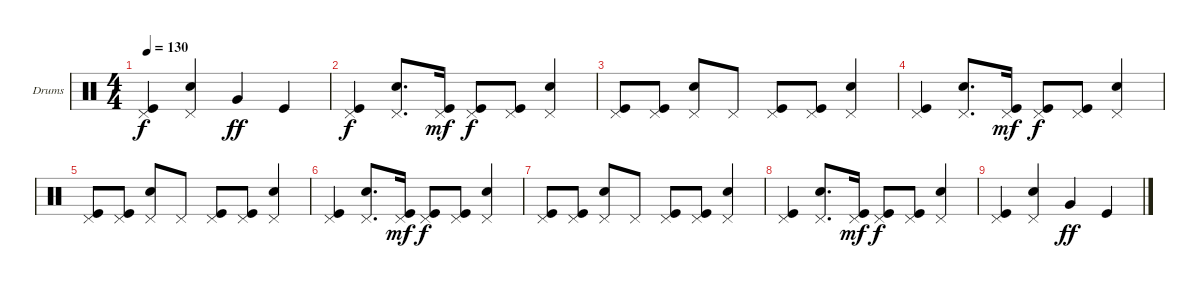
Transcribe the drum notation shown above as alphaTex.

\defaultSystemsLayout 4
\bracketExtendMode groupsimilarinstruments
\firstSystemTrackNameOrientation horizontal
\otherSystemsTrackNameOrientation horizontal
\track ("Е. Кулаков" "Drums") {instrument percussion}
\staff {score}
\articulation defaults
\ts (4 4)
\tempo 130
\clef neutral
\ks c
("Kick (hit)" "Pedal Hi-Hat (hit)").4{dy f} ("Snare (hit) 2" "Pedal Hi-Hat (hit)").4 "Very Low Tom (hit)".4{dy ff} "Kick (hit)".4 |
("Kick (hit)" "Pedal Hi-Hat (hit)").4{dy f} ("Snare (hit) 2" "Pedal Hi-Hat (hit)").8{d} ("Kick (hit)" "Pedal Hi-Hat (hit)").16{dy mf} ("Kick (hit)" "Pedal Hi-Hat (hit)").8{dy f} ("Kick (hit)" "Pedal Hi-Hat (hit)").8 ("Snare (hit) 2" "Pedal Hi-Hat (hit)").4 |
("Kick (hit)" "Pedal Hi-Hat (hit)").8 ("Kick (hit)" "Pedal Hi-Hat (hit)").8 ("Snare (hit) 2" "Pedal Hi-Hat (hit)").8 "Pedal Hi-Hat (hit)".8 ("Kick (hit)" "Pedal Hi-Hat (hit)").8 ("Kick (hit)" "Pedal Hi-Hat (hit)").8 ("Snare (hit) 2" "Pedal Hi-Hat (hit)").4 |
("Kick (hit)" "Pedal Hi-Hat (hit)").4 ("Snare (hit) 2" "Pedal Hi-Hat (hit)").8{d} ("Kick (hit)" "Pedal Hi-Hat (hit)").16{dy mf} ("Kick (hit)" "Pedal Hi-Hat (hit)").8{dy f} ("Kick (hit)" "Pedal Hi-Hat (hit)").8 ("Snare (hit) 2" "Pedal Hi-Hat (hit)").4 |
("Kick (hit)" "Pedal Hi-Hat (hit)").8 ("Kick (hit)" "Pedal Hi-Hat (hit)").8 ("Snare (hit) 2" "Pedal Hi-Hat (hit)").8 "Pedal Hi-Hat (hit)".8 ("Kick (hit)" "Pedal Hi-Hat (hit)").8 ("Kick (hit)" "Pedal Hi-Hat (hit)").8 ("Snare (hit) 2" "Pedal Hi-Hat (hit)").4 |
("Kick (hit)" "Pedal Hi-Hat (hit)").4 ("Snare (hit) 2" "Pedal Hi-Hat (hit)").8{d} ("Kick (hit)" "Pedal Hi-Hat (hit)").16{dy mf} ("Kick (hit)" "Pedal Hi-Hat (hit)").8{dy f} ("Kick (hit)" "Pedal Hi-Hat (hit)").8 ("Snare (hit) 2" "Pedal Hi-Hat (hit)").4 |
("Kick (hit)" "Pedal Hi-Hat (hit)").8 ("Kick (hit)" "Pedal Hi-Hat (hit)").8 ("Snare (hit) 2" "Pedal Hi-Hat (hit)").8 "Pedal Hi-Hat (hit)".8 ("Kick (hit)" "Pedal Hi-Hat (hit)").8 ("Kick (hit)" "Pedal Hi-Hat (hit)").8 ("Snare (hit) 2" "Pedal Hi-Hat (hit)").4 |
("Kick (hit)" "Pedal Hi-Hat (hit)").4 ("Snare (hit) 2" "Pedal Hi-Hat (hit)").8{d} ("Kick (hit)" "Pedal Hi-Hat (hit)").16{dy mf} ("Kick (hit)" "Pedal Hi-Hat (hit)").8{dy f} ("Kick (hit)" "Pedal Hi-Hat (hit)").8 ("Snare (hit) 2" "Pedal Hi-Hat (hit)").4 |
("Kick (hit)" "Pedal Hi-Hat (hit)").4 ("Snare (hit) 2" "Pedal Hi-Hat (hit)").4 "Very Low Tom (hit)".4{dy ff} "Kick (hit)".4
